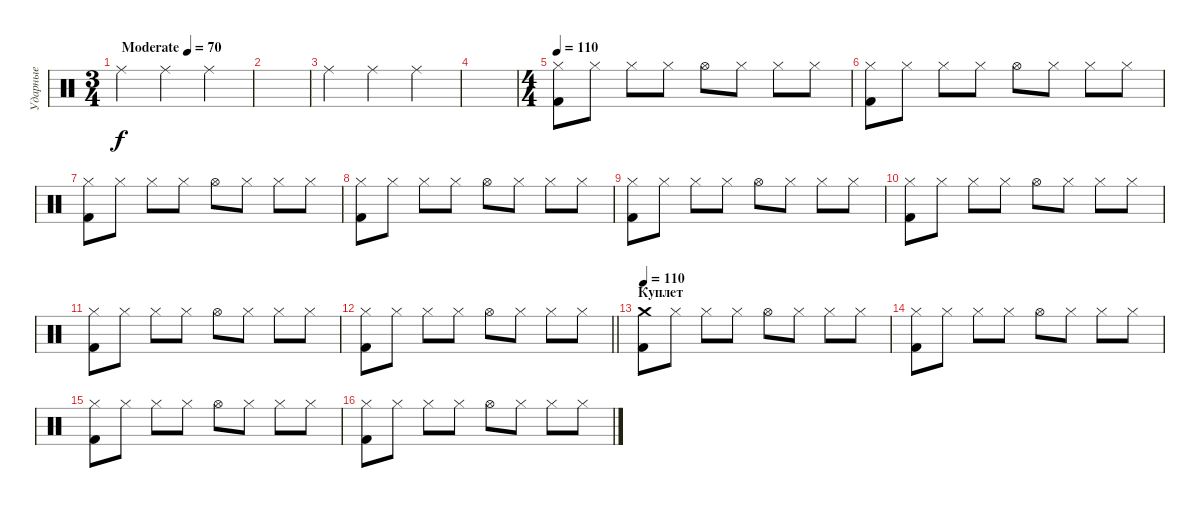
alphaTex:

\track ("Ударные" "Ударные") {instrument percussion}
\staff {score}
\articulation defaults
\ts (3 4)
\tempo (70 "Moderate")
\clef neutral
\ks c "Ride (middle)".4{dy f} "Ride (middle)".4 "Ride (middle)".4
|
|
"Ride (middle)".4 "Ride (middle)".4 "Ride (middle)".4 |
|
\ts (4 4)
\tempo 110
("Hi-Hat (closed)" "Kick (hit) 2").8 "Hi-Hat (closed)".8 "Hi-Hat (closed)".8 "Hi-Hat (closed)".8 "Hi-Hat (open)".8 "Hi-Hat (closed)".8 "Hi-Hat (closed)".8 "Hi-Hat (closed)".8 |
("Hi-Hat (closed)" "Kick (hit) 2").8 "Hi-Hat (closed)".8 "Hi-Hat (closed)".8 "Hi-Hat (closed)".8 "Hi-Hat (open)".8 "Hi-Hat (closed)".8 "Hi-Hat (closed)".8 "Hi-Hat (closed)".8 |
("Hi-Hat (closed)" "Kick (hit) 2").8 "Hi-Hat (closed)".8 "Hi-Hat (closed)".8 "Hi-Hat (closed)".8 "Hi-Hat (open)".8 "Hi-Hat (closed)".8 "Hi-Hat (closed)".8 "Hi-Hat (closed)".8 |
("Hi-Hat (closed)" "Kick (hit) 2").8 "Hi-Hat (closed)".8 "Hi-Hat (closed)".8 "Hi-Hat (closed)".8 "Hi-Hat (open)".8 "Hi-Hat (closed)".8 "Hi-Hat (closed)".8 "Hi-Hat (closed)".8 |
("Hi-Hat (closed)" "Kick (hit) 2").8 "Hi-Hat (closed)".8 "Hi-Hat (closed)".8 "Hi-Hat (closed)".8 "Hi-Hat (open)".8 "Hi-Hat (closed)".8 "Hi-Hat (closed)".8 "Hi-Hat (closed)".8 |
("Hi-Hat (closed)" "Kick (hit) 2").8 "Hi-Hat (closed)".8 "Hi-Hat (closed)".8 "Hi-Hat (closed)".8 "Hi-Hat (open)".8 "Hi-Hat (closed)".8 "Hi-Hat (closed)".8 "Hi-Hat (closed)".8 |
("Hi-Hat (closed)" "Kick (hit) 2").8 "Hi-Hat (closed)".8 "Hi-Hat (closed)".8 "Hi-Hat (closed)".8 "Hi-Hat (open)".8 "Hi-Hat (closed)".8 "Hi-Hat (closed)".8 "Hi-Hat (closed)".8 |
\barLineRight lightlight
("Hi-Hat (closed)" "Kick (hit) 2").8 "Hi-Hat (closed)".8 "Hi-Hat (closed)".8 "Hi-Hat (closed)".8 "Hi-Hat (open)".8 "Hi-Hat (closed)".8 "Hi-Hat (closed)".8 "Hi-Hat (closed)".8 |
\section ("" "Куплет")
\tempo 110
("Crash medium (hit)" "Kick (hit) 2").8 "Hi-Hat (closed)".8 "Hi-Hat (closed)".8 "Hi-Hat (closed)".8 "Hi-Hat (open)".8 "Hi-Hat (closed)".8 "Hi-Hat (closed)".8 "Hi-Hat (closed)".8 |
("Hi-Hat (closed)" "Kick (hit) 2").8 "Hi-Hat (closed)".8 "Hi-Hat (closed)".8 "Hi-Hat (closed)".8 "Hi-Hat (open)".8 "Hi-Hat (closed)".8 "Hi-Hat (closed)".8 "Hi-Hat (closed)".8 |
("Hi-Hat (closed)" "Kick (hit) 2").8 "Hi-Hat (closed)".8 "Hi-Hat (closed)".8 "Hi-Hat (closed)".8 "Hi-Hat (open)".8 "Hi-Hat (closed)".8 "Hi-Hat (closed)".8 "Hi-Hat (closed)".8 |
("Hi-Hat (closed)" "Kick (hit) 2").8 "Hi-Hat (closed)".8 "Hi-Hat (closed)".8 "Hi-Hat (closed)".8 "Hi-Hat (open)".8 "Hi-Hat (closed)".8 "Hi-Hat (closed)".8 "Hi-Hat (closed)".8
